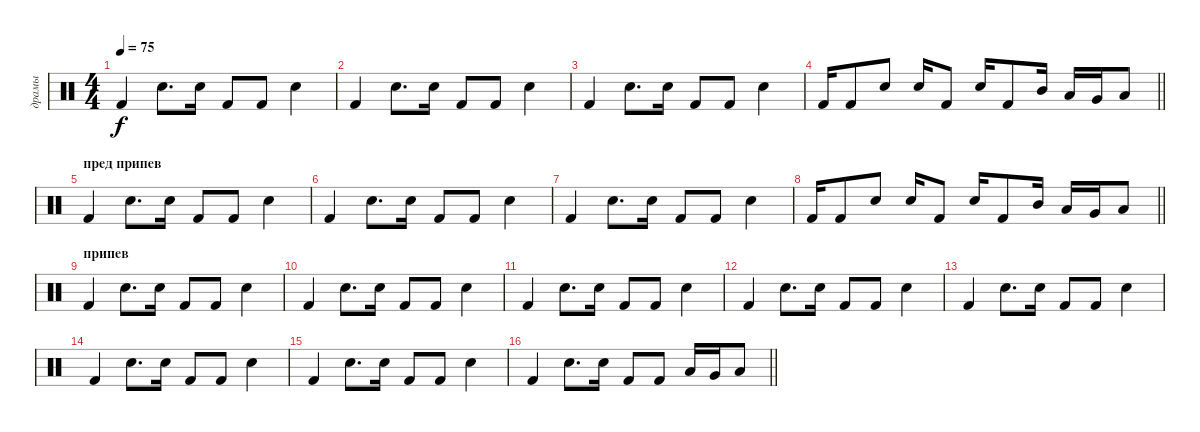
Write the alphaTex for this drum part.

\track ("драмы" "драмы") {instrument percussion}
\staff {score}
\articulation defaults
\ts (4 4)
\tempo 75
\clef neutral
\ks c "Kick (hit) 2".4{dy f} "Electric Snare (hit)".8{d} "Electric Snare (hit)".16 "Kick (hit) 2".8 "Kick (hit) 2".8 "Electric Snare (hit)".4
|
"Kick (hit) 2".4 "Electric Snare (hit)".8{d} "Electric Snare (hit)".16 "Kick (hit) 2".8 "Kick (hit) 2".8 "Electric Snare (hit)".4 |
"Kick (hit) 2".4 "Electric Snare (hit)".8{d} "Electric Snare (hit)".16 "Kick (hit) 2".8 "Kick (hit) 2".8 "Electric Snare (hit)".4 |
\barLineRight lightlight "Kick (hit) 2".16 "Kick (hit) 2".8 "Electric Snare (hit)".8 "Electric Snare (hit)".16 "Kick (hit) 2".8 "Electric Snare (hit)".16 "Kick (hit) 2".8 "Mid Tom (hit)".16 "Low Tom (hit)".16 "Very Low Tom (hit)".16 "Low Floor Tom (hit)".8
|
\section ("" "пред припев")
"Kick (hit) 2".4 "Electric Snare (hit)".8{d} "Electric Snare (hit)".16 "Kick (hit) 2".8 "Kick (hit) 2".8 "Electric Snare (hit)".4 |
"Kick (hit) 2".4 "Electric Snare (hit)".8{d} "Electric Snare (hit)".16 "Kick (hit) 2".8 "Kick (hit) 2".8 "Electric Snare (hit)".4 |
"Kick (hit) 2".4 "Electric Snare (hit)".8{d} "Electric Snare (hit)".16 "Kick (hit) 2".8 "Kick (hit) 2".8 "Electric Snare (hit)".4 |
\barLineRight lightlight "Kick (hit) 2".16 "Kick (hit) 2".8 "Electric Snare (hit)".8 "Electric Snare (hit)".16 "Kick (hit) 2".8 "Electric Snare (hit)".16 "Kick (hit) 2".8 "Mid Tom (hit)".16 "Low Tom (hit)".16 "Very Low Tom (hit)".16 "Low Floor Tom (hit)".8
|
\section ("" "припев")
"Kick (hit) 2".4 "Electric Snare (hit)".8{d} "Electric Snare (hit)".16 "Kick (hit) 2".8 "Kick (hit) 2".8 "Electric Snare (hit)".4 |
"Kick (hit) 2".4 "Electric Snare (hit)".8{d} "Electric Snare (hit)".16 "Kick (hit) 2".8 "Kick (hit) 2".8 "Electric Snare (hit)".4 |
"Kick (hit) 2".4 "Electric Snare (hit)".8{d} "Electric Snare (hit)".16 "Kick (hit) 2".8 "Kick (hit) 2".8 "Electric Snare (hit)".4 |
"Kick (hit) 2".4 "Electric Snare (hit)".8{d} "Electric Snare (hit)".16 "Kick (hit) 2".8 "Kick (hit) 2".8 "Electric Snare (hit)".4 |
"Kick (hit) 2".4 "Electric Snare (hit)".8{d} "Electric Snare (hit)".16 "Kick (hit) 2".8 "Kick (hit) 2".8 "Electric Snare (hit)".4 |
"Kick (hit) 2".4 "Electric Snare (hit)".8{d} "Electric Snare (hit)".16 "Kick (hit) 2".8 "Kick (hit) 2".8 "Electric Snare (hit)".4 |
"Kick (hit) 2".4 "Electric Snare (hit)".8{d} "Electric Snare (hit)".16 "Kick (hit) 2".8 "Kick (hit) 2".8 "Electric Snare (hit)".4 |
\barLineRight lightlight "Kick (hit) 2".4 "Electric Snare (hit)".8{d} "Electric Snare (hit)".16 "Kick (hit) 2".8 "Kick (hit) 2".8 "Low Tom (hit)".16 "Very Low Tom (hit)".16 "Low Floor Tom (hit)".8
